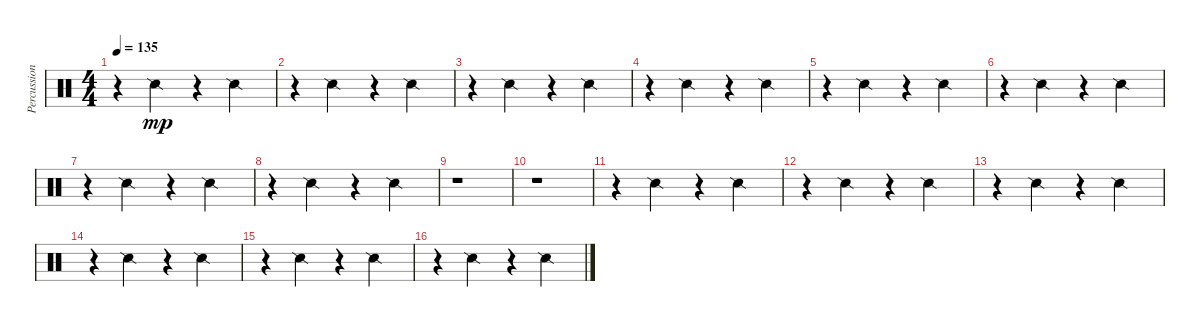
\track ("Percussion" "Percussion") {instrument percussion}
\staff {score}
\articulation defaults
\ts (4 4)
\tempo 135
\clef neutral
\ks c
r.4{dy mp} "Snare (side stick) 2".4 r.4 "Snare (side stick) 2".4 |
r.4 "Snare (side stick) 2".4 r.4 "Snare (side stick) 2".4 |
r.4 "Snare (side stick) 2".4 r.4 "Snare (side stick) 2".4 |
r.4 "Snare (side stick) 2".4 r.4 "Snare (side stick) 2".4 |
r.4 "Snare (side stick) 2".4 r.4 "Snare (side stick) 2".4 |
r.4 "Snare (side stick) 2".4 r.4 "Snare (side stick) 2".4 |
r.4 "Snare (side stick) 2".4 r.4 "Snare (side stick) 2".4 |
r.4 "Snare (side stick) 2".4 r.4 "Snare (side stick) 2".4 |
r.1 |
r.1 |
r.4 "Snare (side stick) 2".4 r.4 "Snare (side stick) 2".4 |
r.4 "Snare (side stick) 2".4 r.4 "Snare (side stick) 2".4 |
r.4 "Snare (side stick) 2".4 r.4 "Snare (side stick) 2".4 |
r.4 "Snare (side stick) 2".4 r.4 "Snare (side stick) 2".4 |
r.4 "Snare (side stick) 2".4 r.4 "Snare (side stick) 2".4 |
r.4 "Snare (side stick) 2".4 r.4 "Snare (side stick) 2".4
